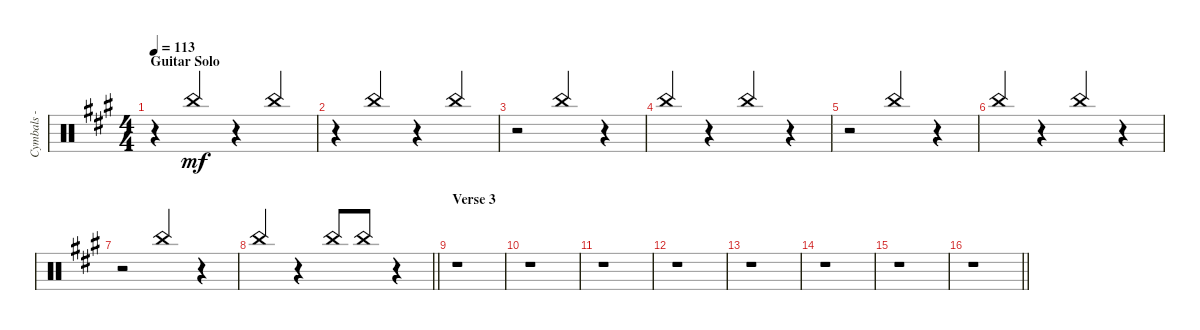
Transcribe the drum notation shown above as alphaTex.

\track ("Cymbals - china" "Cymbals - ") {instrument percussion}
\staff {score}
\articulation defaults
\ts (4 4)
\section ("" "Guitar Solo")
\tempo 113
\clef neutral
\ks f#minor
r.4{dy mf} "China (hit)".4{beam Up} r.4 "China (hit)".4{beam Up} |
r.4 "China (hit)".4{beam Up} r.4 "China (hit)".4{beam Up} |
r.2 "China (hit)".4{beam Up} r.4 |
"China (hit)".4{beam Up} r.4 "China (hit)".4{beam Up} r.4 |
r.2 "China (hit)".4{beam Up} r.4 |
"China (hit)".4{beam Up} r.4 "China (hit)".4{beam Up} r.4 |
r.2 "China (hit)".4{beam Up} r.4 |
\barLineRight lightlight "China (hit)".4{beam Up}
r.4 "China (hit)".8{beam Up} "China (hit)".8{beam Up} r.4 |
\section ("" "Verse 3")
r.1 |
r.1 |
r.1 |
r.1 |
r.1 |
r.1 |
r.1 |
\barLineRight lightlight
r.1
